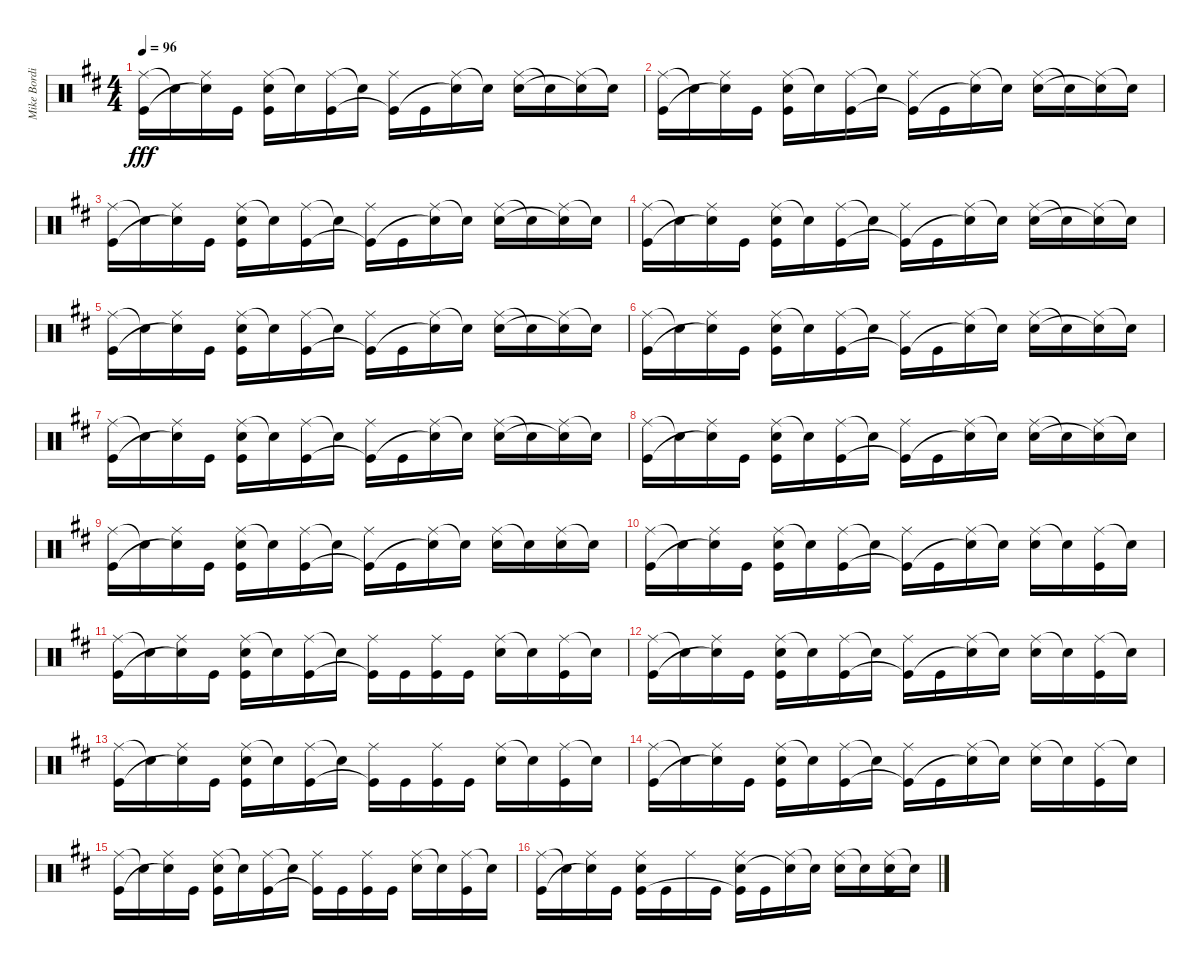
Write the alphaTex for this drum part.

\track ("Mike Bordin" "Mike Bordi") {instrument percussion}
\staff {score}
\articulation defaults
\ts (4 4)
\tempo 96
\clef neutral
\ks d
("Ride (middle)" "Kick (hit)").16{dy fff} "Snare (hit)"{t}.16 ("Ride (middle)" "Snare (hit)"{t}).16 "Kick (hit)".16 ("Ride (middle)" "Electric Snare (hit)" "Kick (hit)").16 "Snare (hit)"{t}.16 ("Ride (middle)" "Kick (hit)").16 "Snare (hit)"{t}.16 ("Ride (middle)" "Kick (hit)"{t}).16 "Kick (hit)".16 ("Ride (middle)" "Snare (hit)"{t}).16 "Snare (hit)"{t}.16 ("Ride (middle)" "Electric Snare (hit)").16 "Snare (hit)"{t}.16 ("Ride (middle)" "Snare (hit)"{t}).16 "Snare (hit)"{t}.16 |
("Ride (middle)" "Kick (hit)").16 "Snare (hit)"{t}.16 ("Ride (middle)" "Snare (hit)"{t}).16 "Kick (hit)".16 ("Ride (middle)" "Electric Snare (hit)" "Kick (hit)").16 "Snare (hit)"{t}.16 ("Ride (middle)" "Kick (hit)").16 "Snare (hit)"{t}.16 ("Ride (middle)" "Kick (hit)"{t}).16 "Kick (hit)".16 ("Ride (middle)" "Snare (hit)"{t}).16 "Snare (hit)"{t}.16 ("Ride (middle)" "Electric Snare (hit)").16 "Snare (hit)"{t}.16 ("Ride (middle)" "Snare (hit)"{t}).16 "Snare (hit)"{t}.16 |
("Ride (middle)" "Kick (hit)").16 "Snare (hit)"{t}.16 ("Ride (middle)" "Snare (hit)"{t}).16 "Kick (hit)".16 ("Ride (middle)" "Electric Snare (hit)" "Kick (hit)").16 "Snare (hit)"{t}.16 ("Ride (middle)" "Kick (hit)").16 "Snare (hit)"{t}.16 ("Ride (middle)" "Kick (hit)"{t}).16 "Kick (hit)".16 ("Ride (middle)" "Snare (hit)"{t}).16 "Snare (hit)"{t}.16 ("Ride (middle)" "Electric Snare (hit)").16 "Snare (hit)"{t}.16 ("Ride (middle)" "Snare (hit)"{t}).16 "Snare (hit)"{t}.16 |
("Ride (middle)" "Kick (hit)").16 "Snare (hit)"{t}.16 ("Ride (middle)" "Snare (hit)"{t}).16 "Kick (hit)".16 ("Ride (middle)" "Electric Snare (hit)" "Kick (hit)").16 "Snare (hit)"{t}.16 ("Ride (middle)" "Kick (hit)").16 "Snare (hit)"{t}.16 ("Ride (middle)" "Kick (hit)"{t}).16 "Kick (hit)".16 ("Ride (middle)" "Snare (hit)"{t}).16 "Snare (hit)"{t}.16 ("Ride (middle)" "Electric Snare (hit)").16 "Snare (hit)"{t}.16 ("Ride (middle)" "Snare (hit)"{t}).16 "Snare (hit)"{t}.16 |
("Ride (middle)" "Kick (hit)").16 "Snare (hit)"{t}.16 ("Ride (middle)" "Snare (hit)"{t}).16 "Kick (hit)".16 ("Ride (middle)" "Electric Snare (hit)" "Kick (hit)").16 "Snare (hit)"{t}.16 ("Ride (middle)" "Kick (hit)").16 "Snare (hit)"{t}.16 ("Ride (middle)" "Kick (hit)"{t}).16 "Kick (hit)".16 ("Ride (middle)" "Snare (hit)"{t}).16 "Snare (hit)"{t}.16 ("Ride (middle)" "Electric Snare (hit)").16 "Snare (hit)"{t}.16 ("Ride (middle)" "Snare (hit)"{t}).16 "Snare (hit)"{t}.16 |
("Ride (middle)" "Kick (hit)").16 "Snare (hit)"{t}.16 ("Ride (middle)" "Snare (hit)"{t}).16 "Kick (hit)".16 ("Ride (middle)" "Electric Snare (hit)" "Kick (hit)").16 "Snare (hit)"{t}.16 ("Ride (middle)" "Kick (hit)").16 "Snare (hit)"{t}.16 ("Ride (middle)" "Kick (hit)"{t}).16 "Kick (hit)".16 ("Ride (middle)" "Snare (hit)"{t}).16 "Snare (hit)"{t}.16 ("Ride (middle)" "Electric Snare (hit)").16 "Snare (hit)"{t}.16 ("Ride (middle)" "Snare (hit)"{t}).16 "Snare (hit)"{t}.16 |
("Ride (middle)" "Kick (hit)").16 "Snare (hit)"{t}.16 ("Ride (middle)" "Snare (hit)"{t}).16 "Kick (hit)".16 ("Ride (middle)" "Electric Snare (hit)" "Kick (hit)").16 "Snare (hit)"{t}.16 ("Ride (middle)" "Kick (hit)").16 "Snare (hit)"{t}.16 ("Ride (middle)" "Kick (hit)"{t}).16 "Kick (hit)".16 ("Ride (middle)" "Snare (hit)"{t}).16 "Snare (hit)"{t}.16 ("Ride (middle)" "Electric Snare (hit)").16 "Snare (hit)"{t}.16 ("Ride (middle)" "Snare (hit)"{t}).16 "Snare (hit)"{t}.16 |
("Ride (middle)" "Kick (hit)").16 "Snare (hit)"{t}.16 ("Ride (middle)" "Snare (hit)"{t}).16 "Kick (hit)".16 ("Ride (middle)" "Electric Snare (hit)" "Kick (hit)").16 "Snare (hit)"{t}.16 ("Ride (middle)" "Kick (hit)").16 "Snare (hit)"{t}.16 ("Ride (middle)" "Kick (hit)"{t}).16 "Kick (hit)".16 ("Ride (middle)" "Snare (hit)"{t}).16 "Snare (hit)"{t}.16 ("Ride (middle)" "Electric Snare (hit)").16 "Snare (hit)"{t}.16 ("Ride (middle)" "Snare (hit)"{t}).16 "Snare (hit)"{t}.16 |
("Ride (middle)" "Kick (hit)").16 "Snare (hit)"{t}.16 ("Ride (middle)" "Snare (hit)"{t}).16 "Kick (hit)".16 ("Ride (middle)" "Electric Snare (hit)" "Kick (hit)").16 "Snare (hit)"{t}.16 ("Ride (middle)" "Kick (hit)").16 "Snare (hit)"{t}.16 ("Ride (middle)" "Kick (hit)"{t}).16 "Kick (hit)".16 ("Ride (middle)" "Snare (hit)"{t}).16 "Snare (hit)"{t}.16 ("Ride (middle)" "Electric Snare (hit)").16 "Snare (hit)"{t}.16 ("Ride (middle)" "Electric Snare (hit)").16 "Snare (hit)"{t}.16 |
("Ride (middle)" "Kick (hit)").16 "Snare (hit)"{t}.16 ("Ride (middle)" "Snare (hit)"{t}).16 "Kick (hit)".16 ("Ride (middle)" "Electric Snare (hit)" "Kick (hit)").16 "Snare (hit)"{t}.16 ("Ride (middle)" "Kick (hit)").16 "Snare (hit)"{t}.16 ("Ride (middle)" "Kick (hit)"{t}).16 "Kick (hit)".16 ("Ride (middle)" "Snare (hit)"{t}).16 "Snare (hit)"{t}.16 ("Ride (middle)" "Electric Snare (hit)").16 "Snare (hit)"{t}.16 ("Ride (middle)" "Kick (hit)").16 "Snare (hit)"{t}.16 |
("Ride (middle)" "Kick (hit)").16 "Snare (hit)"{t}.16 ("Ride (middle)" "Snare (hit)"{t}).16 "Kick (hit)".16 ("Ride (middle)" "Electric Snare (hit)" "Kick (hit)").16 "Snare (hit)"{t}.16 ("Ride (middle)" "Kick (hit)").16 "Snare (hit)"{t}.16 ("Ride (middle)" "Kick (hit)"{t}).16 "Kick (hit)".16 ("Ride (middle)" "Kick (hit)").16 "Kick (hit)".16 ("Ride (middle)" "Electric Snare (hit)").16 "Snare (hit)"{t}.16 ("Ride (middle)" "Kick (hit)").16 "Snare (hit)"{t}.16 |
("Ride (middle)" "Kick (hit)").16 "Snare (hit)"{t}.16 ("Ride (middle)" "Snare (hit)"{t}).16 "Kick (hit)".16 ("Ride (middle)" "Electric Snare (hit)" "Kick (hit)").16 "Snare (hit)"{t}.16 ("Ride (middle)" "Kick (hit)").16 "Snare (hit)"{t}.16 ("Ride (middle)" "Kick (hit)"{t}).16 "Kick (hit)".16 ("Ride (middle)" "Snare (hit)"{t}).16 "Snare (hit)"{t}.16 ("Ride (middle)" "Electric Snare (hit)").16 "Snare (hit)"{t}.16 ("Ride (middle)" "Kick (hit)").16 "Snare (hit)"{t}.16 |
("Ride (middle)" "Kick (hit)").16 "Snare (hit)"{t}.16 ("Ride (middle)" "Snare (hit)"{t}).16 "Kick (hit)".16 ("Ride (middle)" "Electric Snare (hit)" "Kick (hit)").16 "Snare (hit)"{t}.16 ("Ride (middle)" "Kick (hit)").16 "Snare (hit)"{t}.16 ("Ride (middle)" "Kick (hit)"{t}).16 "Kick (hit)".16 ("Ride (middle)" "Kick (hit)").16 "Kick (hit)".16 ("Ride (middle)" "Electric Snare (hit)").16 "Snare (hit)"{t}.16 ("Ride (middle)" "Kick (hit)").16 "Snare (hit)"{t}.16 |
("Ride (middle)" "Kick (hit)").16 "Snare (hit)"{t}.16 ("Ride (middle)" "Snare (hit)"{t}).16 "Kick (hit)".16 ("Ride (middle)" "Electric Snare (hit)" "Kick (hit)").16 "Snare (hit)"{t}.16 ("Ride (middle)" "Kick (hit)").16 "Snare (hit)"{t}.16 ("Ride (middle)" "Kick (hit)"{t}).16 "Kick (hit)".16 ("Ride (middle)" "Snare (hit)"{t}).16 "Snare (hit)"{t}.16 ("Ride (middle)" "Electric Snare (hit)").16 "Snare (hit)"{t}.16 ("Ride (middle)" "Kick (hit)").16 "Snare (hit)"{t}.16 |
("Ride (middle)" "Kick (hit)").16 "Snare (hit)"{t}.16 ("Ride (middle)" "Snare (hit)"{t}).16 "Kick (hit)".16 ("Ride (middle)" "Electric Snare (hit)" "Kick (hit)").16 "Snare (hit)"{t}.16 ("Ride (middle)" "Kick (hit)").16 "Snare (hit)"{t}.16 ("Ride (middle)" "Kick (hit)"{t}).16 "Kick (hit)".16 ("Ride (middle)" "Kick (hit)").16 "Kick (hit)".16 ("Ride (middle)" "Electric Snare (hit)").16 "Snare (hit)"{t}.16 ("Ride (middle)" "Kick (hit)").16 "Snare (hit)"{t}.16 |
("Ride (middle)" "Kick (hit)").16 "Snare (hit)"{t}.16 ("Ride (middle)" "Snare (hit)"{t}).16 "Kick (hit)".16 ("Ride (middle)" "Electric Snare (hit)" "Kick (hit)").16 "Kick (hit)".16 "Ride (middle)".16 "Kick (hit)".16 ("Ride (middle)" "Electric Snare (hit)" "Kick (hit)"{t}).16 "Kick (hit)".16 ("Ride (middle)" "Snare (hit)"{t}).16 "Snare (hit)"{t}.16 ("Ride (middle)" "Electric Snare (hit)").16 "Snare (hit)"{t}.16 ("Ride (middle)" "Electric Snare (hit)" "Kick (hit)").16 "Snare (hit)"{t}.16
